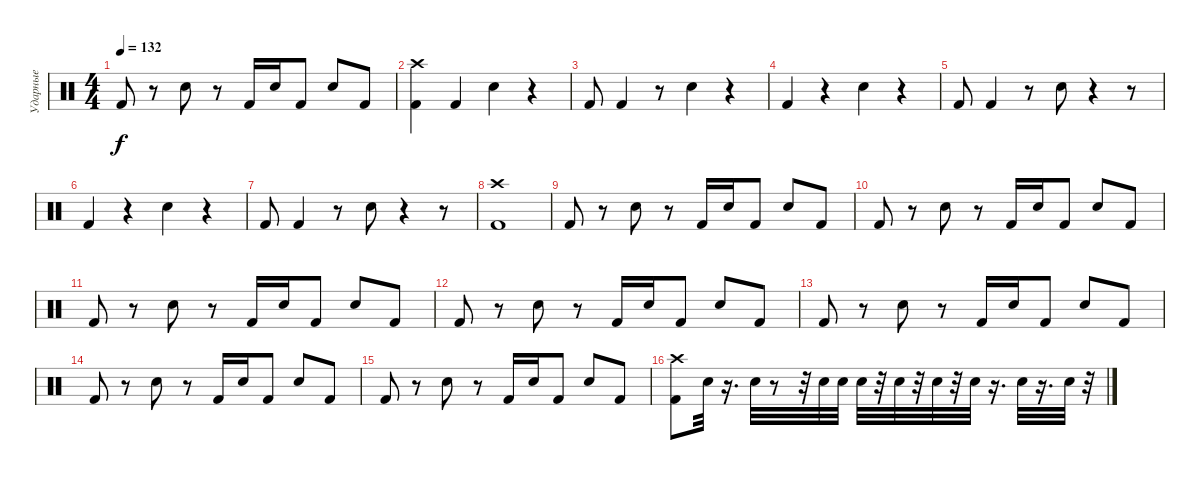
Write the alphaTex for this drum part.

\track ("Ударные" "Ударные") {instrument percussion}
\staff {score}
\articulation defaults
\ts (4 4)
\tempo 132
\clef neutral
\ks c "Kick (hit) 2".8{dy f}
r.8 "Electric Snare (hit)".8 r.8 "Kick (hit) 2".16 "Electric Snare (hit)".16 "Kick (hit) 2".8 "Electric Snare (hit)".8 "Kick (hit) 2".8 |
("Kick (hit) 2" "Crash high (hit)").4 "Kick (hit) 2".4 "Electric Snare (hit)".4 r.4 |
"Kick (hit) 2".8 "Kick (hit) 2".4 r.8 "Electric Snare (hit)".4 r.4 |
"Kick (hit) 2".4 r.4 "Electric Snare (hit)".4 r.4 |
"Kick (hit) 2".8 "Kick (hit) 2".4 r.8 "Electric Snare (hit)".8 r.4 r.8 |
"Kick (hit) 2".4 r.4 "Electric Snare (hit)".4 r.4 |
"Kick (hit) 2".8 "Kick (hit) 2".4 r.8 "Electric Snare (hit)".8 r.4 r.8 |
("Crash high (hit)" "Kick (hit) 2").1 |
"Kick (hit) 2".8 r.8 "Electric Snare (hit)".8 r.8 "Kick (hit) 2".16 "Electric Snare (hit)".16 "Kick (hit) 2".8 "Electric Snare (hit)".8 "Kick (hit) 2".8 |
"Kick (hit) 2".8 r.8 "Electric Snare (hit)".8 r.8 "Kick (hit) 2".16 "Electric Snare (hit)".16 "Kick (hit) 2".8 "Electric Snare (hit)".8 "Kick (hit) 2".8 |
"Kick (hit) 2".8 r.8 "Electric Snare (hit)".8 r.8 "Kick (hit) 2".16 "Electric Snare (hit)".16 "Kick (hit) 2".8 "Electric Snare (hit)".8 "Kick (hit) 2".8 |
"Kick (hit) 2".8 r.8 "Electric Snare (hit)".8 r.8 "Kick (hit) 2".16 "Electric Snare (hit)".16 "Kick (hit) 2".8 "Electric Snare (hit)".8 "Kick (hit) 2".8 |
"Kick (hit) 2".8 r.8 "Electric Snare (hit)".8 r.8 "Kick (hit) 2".16 "Electric Snare (hit)".16 "Kick (hit) 2".8 "Electric Snare (hit)".8 "Kick (hit) 2".8 |
"Kick (hit) 2".8 r.8 "Electric Snare (hit)".8 r.8 "Kick (hit) 2".16 "Electric Snare (hit)".16 "Kick (hit) 2".8 "Electric Snare (hit)".8 "Kick (hit) 2".8 |
"Kick (hit) 2".8 r.8 "Electric Snare (hit)".8 r.8 "Kick (hit) 2".16 "Electric Snare (hit)".16 "Kick (hit) 2".8 "Electric Snare (hit)".8 "Kick (hit) 2".8 |
("Crash high (hit)" "Kick (hit) 2").8 "Electric Snare (hit)".32 r.16{d} "Electric Snare (hit)".32 r.8 r.32 "Electric Snare (hit)".32 "Electric Snare (hit)".32 "Electric Snare (hit)".32 r.32 "Electric Snare (hit)".32 r.32 "Electric Snare (hit)".32 r.32 "Electric Snare (hit)".32 r.16{d} "Electric Snare (hit)".32 r.16{d} "Electric Snare (hit)".32 r.32
